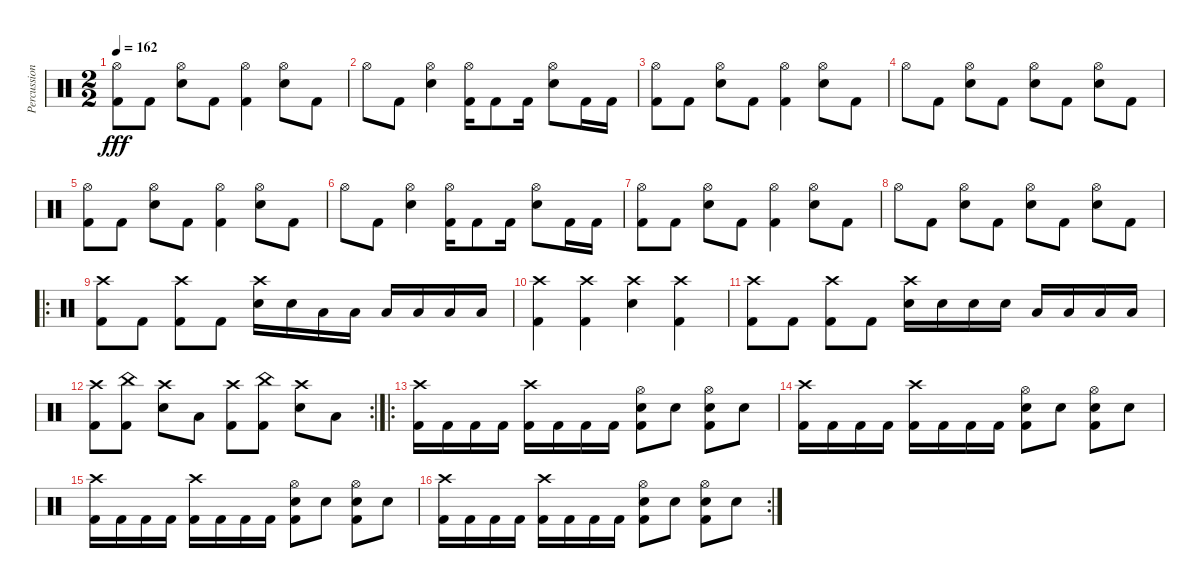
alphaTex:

\track ("Percussion" "Percussion") {instrument percussion}
\staff {score}
\articulation defaults
\ts (2 2)
\tempo 162
\clef neutral
\ks c
("Hi-Hat (open)" "Kick (hit) 2").8{dy fff} "Kick (hit) 2".8 ("Hi-Hat (open)" "Snare (hit) 2").8 "Kick (hit) 2".8 ("Hi-Hat (open)" "Kick (hit) 2").4 ("Hi-Hat (open)" "Snare (hit) 2").8 "Kick (hit) 2".8 |
"Hi-Hat (open)".8 "Kick (hit) 2".8 ("Hi-Hat (open)" "Snare (hit) 2").4 ("Hi-Hat (open)" "Kick (hit) 2").16 "Kick (hit) 2".8 "Kick (hit) 2".16 ("Hi-Hat (open)" "Snare (hit) 2").8 "Kick (hit) 2".16 "Kick (hit) 2".16 |
("Hi-Hat (open)" "Kick (hit) 2").8 "Kick (hit) 2".8 ("Hi-Hat (open)" "Snare (hit) 2").8 "Kick (hit) 2".8 ("Hi-Hat (open)" "Kick (hit) 2").4 ("Hi-Hat (open)" "Snare (hit) 2").8 "Kick (hit) 2".8 |
"Hi-Hat (open)".8 "Kick (hit) 2".8 ("Hi-Hat (open)" "Snare (hit) 2").8 "Kick (hit) 2".8 ("Hi-Hat (open)" "Snare (hit) 2").8 "Kick (hit) 2".8 ("Hi-Hat (open)" "Snare (hit) 2").8 "Kick (hit) 2".8 |
("Hi-Hat (open)" "Kick (hit) 2").8 "Kick (hit) 2".8 ("Hi-Hat (open)" "Snare (hit) 2").8 "Kick (hit) 2".8 ("Hi-Hat (open)" "Kick (hit) 2").4 ("Hi-Hat (open)" "Snare (hit) 2").8 "Kick (hit) 2".8 |
"Hi-Hat (open)".8 "Kick (hit) 2".8 ("Hi-Hat (open)" "Snare (hit) 2").4 ("Hi-Hat (open)" "Kick (hit) 2").16 "Kick (hit) 2".8 "Kick (hit) 2".16 ("Hi-Hat (open)" "Snare (hit) 2").8 "Kick (hit) 2".16 "Kick (hit) 2".16 |
("Hi-Hat (open)" "Kick (hit) 2").8 "Kick (hit) 2".8 ("Hi-Hat (open)" "Snare (hit) 2").8 "Kick (hit) 2".8 ("Hi-Hat (open)" "Kick (hit) 2").4 ("Hi-Hat (open)" "Snare (hit) 2").8 "Kick (hit) 2".8 |
"Hi-Hat (open)".8 "Kick (hit) 2".8 ("Hi-Hat (open)" "Snare (hit) 2").8 "Kick (hit) 2".8 ("Hi-Hat (open)" "Snare (hit) 2").8 "Kick (hit) 2".8 ("Hi-Hat (open)" "Snare (hit) 2").8 "Kick (hit) 2".8 |
\ro
("Crash high (hit)" "Kick (hit) 2").8 "Kick (hit) 2".8 ("Crash high (hit)" "Kick (hit) 2").8 "Kick (hit) 2".8 ("Crash high (hit)" "Snare (hit) 2").16 "Snare (hit) 2".16 "Low Floor Tom (hit)".16 "Low Floor Tom (hit)".16 "Low Floor Tom (hit)".16 "Low Floor Tom (hit)".16 "Low Floor Tom (hit)".16 "Low Floor Tom (hit)".16 |
("Crash high (hit)" "Kick (hit) 2").4 ("Crash high (hit)" "Kick (hit) 2").4 ("Crash high (hit)" "Snare (hit) 2").4 ("Crash high (hit)" "Kick (hit) 2").4 |
("Crash high (hit)" "Kick (hit) 2").8 "Kick (hit) 2".8 ("Crash high (hit)" "Kick (hit) 2").8 "Kick (hit) 2".8 ("Crash high (hit)" "Snare (hit) 2").16 "Snare (hit) 2".16 "Snare (hit) 2".16 "Snare (hit) 2".16 "Low Floor Tom (hit)".16 "Low Floor Tom (hit)".16 "Low Floor Tom (hit)".16 "Low Floor Tom (hit)".16 |
\rc 2
("Crash high (hit)" "Kick (hit) 2").8 ("China (hit)" "Kick (hit) 2").8 ("Crash high (hit)" "Snare (hit) 2").8 "Low Floor Tom (hit)".8 ("Crash high (hit)" "Kick (hit) 2").8 ("China (hit)" "Kick (hit) 2").8 ("Crash high (hit)" "Snare (hit) 2").8 "Low Floor Tom (hit)".8 |
\ro
("Crash high (hit)" "Kick (hit) 2").16 "Kick (hit) 2".16 "Kick (hit) 2".16 "Kick (hit) 2".16 ("Crash high (hit)" "Kick (hit) 2").16 "Kick (hit) 2".16 "Kick (hit) 2".16 "Kick (hit) 2".16 ("Hi-Hat (open)" "Snare (hit) 2" "Kick (hit) 2").8 "Snare (hit) 2".8 ("Hi-Hat (open)" "Snare (hit) 2" "Kick (hit) 2").8 "Snare (hit) 2".8 |
("Crash high (hit)" "Kick (hit) 2").16 "Kick (hit) 2".16 "Kick (hit) 2".16 "Kick (hit) 2".16 ("Crash high (hit)" "Kick (hit) 2").16 "Kick (hit) 2".16 "Kick (hit) 2".16 "Kick (hit) 2".16 ("Hi-Hat (open)" "Snare (hit) 2" "Kick (hit) 2").8 "Snare (hit) 2".8 ("Hi-Hat (open)" "Snare (hit) 2" "Kick (hit) 2").8 "Snare (hit) 2".8 |
("Crash high (hit)" "Kick (hit) 2").16 "Kick (hit) 2".16 "Kick (hit) 2".16 "Kick (hit) 2".16 ("Crash high (hit)" "Kick (hit) 2").16 "Kick (hit) 2".16 "Kick (hit) 2".16 "Kick (hit) 2".16 ("Hi-Hat (open)" "Snare (hit) 2" "Kick (hit) 2").8 "Snare (hit) 2".8 ("Hi-Hat (open)" "Snare (hit) 2" "Kick (hit) 2").8 "Snare (hit) 2".8 |
\rc 2
("Crash high (hit)" "Kick (hit) 2").16 "Kick (hit) 2".16 "Kick (hit) 2".16 "Kick (hit) 2".16 ("Crash high (hit)" "Kick (hit) 2").16 "Kick (hit) 2".16 "Kick (hit) 2".16 "Kick (hit) 2".16 ("Hi-Hat (open)" "Snare (hit) 2" "Kick (hit) 2").8 "Snare (hit) 2".8 ("Hi-Hat (open)" "Snare (hit) 2" "Kick (hit) 2").8 "Snare (hit) 2".8
